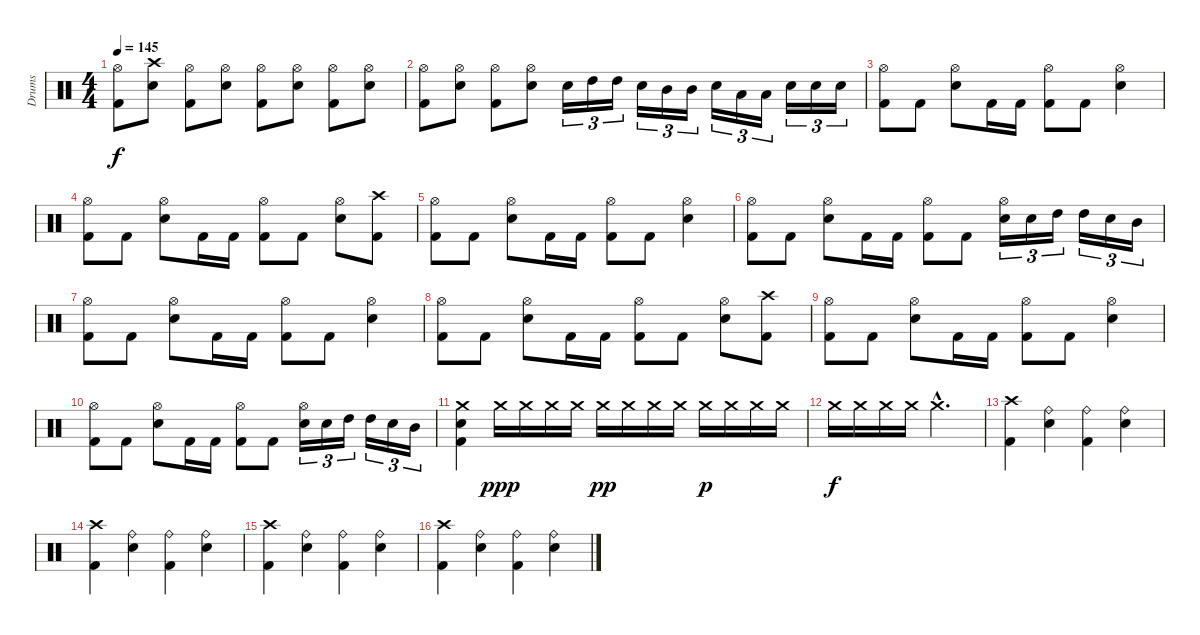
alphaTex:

\track ("Drums" "Drums") {instrument percussion}
\staff {score}
\articulation defaults
\ts (4 4)
\tempo 145
\clef neutral
\ks c
("Hi-Hat (open)" "Kick (hit) 2").8{dy f} ("Crash high (hit)" "Snare (hit) 2").8 ("Hi-Hat (open)" "Kick (hit) 2").8 ("Hi-Hat (open)" "Snare (hit) 2").8 ("Hi-Hat (open)" "Kick (hit) 2").8 ("Hi-Hat (open)" "Snare (hit) 2").8 ("Hi-Hat (open)" "Kick (hit) 2").8 ("Hi-Hat (open)" "Snare (hit) 2").8 |
("Hi-Hat (open)" "Kick (hit) 2").8 ("Hi-Hat (open)" "Snare (hit) 2").8 ("Hi-Hat (open)" "Kick (hit) 2").8 ("Hi-Hat (open)" "Snare (hit) 2").8 "Snare (hit) 2".16{tu (3 2)} "High Tom (hit)".16{tu (3 2)} "High Tom (hit)".16{tu (3 2)} "Snare (hit) 2".16{tu (3 2)} "Mid Tom (hit)".16{tu (3 2)} "Mid Tom (hit)".16{tu (3 2)} "Snare (hit) 2".16{tu (3 2)} "Low Tom (hit)".16{tu (3 2)} "Low Tom (hit)".16{tu (3 2)} "Snare (hit) 2".16{tu (3 2)} "Snare (hit) 2".16{tu (3 2)} "Snare (hit) 2".16{tu (3 2)} |
("Hi-Hat (open)" "Kick (hit) 2").8 "Kick (hit) 2".8 ("Hi-Hat (open)" "Snare (hit) 2").8 "Kick (hit) 2".16 "Kick (hit) 2".16 ("Hi-Hat (open)" "Kick (hit) 2").8 "Kick (hit) 2".8 ("Hi-Hat (open)" "Snare (hit) 2").4 |
("Hi-Hat (open)" "Kick (hit) 2").8 "Kick (hit) 2".8 ("Hi-Hat (open)" "Snare (hit) 2").8 "Kick (hit) 2".16 "Kick (hit) 2".16 ("Hi-Hat (open)" "Kick (hit) 2").8 "Kick (hit) 2".8 ("Hi-Hat (open)" "Snare (hit) 2").8 ("Crash high (hit)" "Kick (hit) 2").8 |
("Hi-Hat (open)" "Kick (hit) 2").8 "Kick (hit) 2".8 ("Hi-Hat (open)" "Snare (hit) 2").8 "Kick (hit) 2".16 "Kick (hit) 2".16 ("Hi-Hat (open)" "Kick (hit) 2").8 "Kick (hit) 2".8 ("Hi-Hat (open)" "Snare (hit) 2").4 |
("Hi-Hat (open)" "Kick (hit) 2").8 "Kick (hit) 2".8 ("Hi-Hat (open)" "Snare (hit) 2").8 "Kick (hit) 2".16 "Kick (hit) 2".16 ("Hi-Hat (open)" "Kick (hit) 2").8 "Kick (hit) 2".8 ("Hi-Hat (open)" "Snare (hit) 2").16{tu (3 2)} "Snare (hit) 2".16{tu (3 2)} "High Tom (hit)".16{tu (3 2)} "High Tom (hit)".16{tu (3 2)} "Snare (hit) 2".16{tu (3 2)} "Mid Tom (hit)".16{tu (3 2)} |
("Hi-Hat (open)" "Kick (hit) 2").8 "Kick (hit) 2".8 ("Hi-Hat (open)" "Snare (hit) 2").8 "Kick (hit) 2".16 "Kick (hit) 2".16 ("Hi-Hat (open)" "Kick (hit) 2").8 "Kick (hit) 2".8 ("Hi-Hat (open)" "Snare (hit) 2").4 |
("Hi-Hat (open)" "Kick (hit) 2").8 "Kick (hit) 2".8 ("Hi-Hat (open)" "Snare (hit) 2").8 "Kick (hit) 2".16 "Kick (hit) 2".16 ("Hi-Hat (open)" "Kick (hit) 2").8 "Kick (hit) 2".8 ("Hi-Hat (open)" "Snare (hit) 2").8 ("Crash high (hit)" "Kick (hit) 2").8 |
("Hi-Hat (open)" "Kick (hit) 2").8 "Kick (hit) 2".8 ("Hi-Hat (open)" "Snare (hit) 2").8 "Kick (hit) 2".16 "Kick (hit) 2".16 ("Hi-Hat (open)" "Kick (hit) 2").8 "Kick (hit) 2".8 ("Hi-Hat (open)" "Snare (hit) 2").4 |
("Hi-Hat (open)" "Kick (hit) 2").8 "Kick (hit) 2".8 ("Hi-Hat (open)" "Snare (hit) 2").8 "Kick (hit) 2".16 "Kick (hit) 2".16 ("Hi-Hat (open)" "Kick (hit) 2").8 "Kick (hit) 2".8 ("Hi-Hat (open)" "Snare (hit) 2").16{tu (3 2)} "Snare (hit) 2".16{tu (3 2)} "High Tom (hit)".16{tu (3 2)} "High Tom (hit)".16{tu (3 2)} "Snare (hit) 2".16{tu (3 2)} "Mid Tom (hit)".16{tu (3 2)} |
("Crash medium (hit)" "Snare (hit) 2" "Kick (hit) 2").4 "Crash medium (hit)".16{dy ppp volume 2} "Crash medium (hit)".16{volume 11} "Crash medium (hit)".16 "Crash medium (hit)".16 "Crash medium (hit)".16{dy pp} "Crash medium (hit)".16 "Crash medium (hit)".16 "Crash medium (hit)".16 "Crash medium (hit)".16{dy p} "Crash medium (hit)".16 "Crash medium (hit)".16 "Crash medium (hit)".16 |
"Crash medium (hit)".16{dy f} "Crash medium (hit)".16 "Crash medium (hit)".16 "Crash medium (hit)".16 "Crash medium (hit)"{hac}.2{d} |
("Crash high (hit)" "Kick (hit) 2").4 ("Ride (bell)" "Snare (hit) 2").4 ("Ride (bell)" "Kick (hit) 2").4 ("Ride (bell)" "Snare (hit) 2").4 |
("Crash high (hit)" "Kick (hit) 2").4 ("Ride (bell)" "Snare (hit) 2").4 ("Ride (bell)" "Kick (hit) 2").4 ("Ride (bell)" "Snare (hit) 2").4 |
("Crash high (hit)" "Kick (hit) 2").4 ("Ride (bell)" "Snare (hit) 2").4 ("Ride (bell)" "Kick (hit) 2").4 ("Ride (bell)" "Snare (hit) 2").4 |
("Crash high (hit)" "Kick (hit) 2").4 ("Ride (bell)" "Snare (hit) 2").4 ("Ride (bell)" "Kick (hit) 2").4 ("Ride (bell)" "Snare (hit) 2").4
